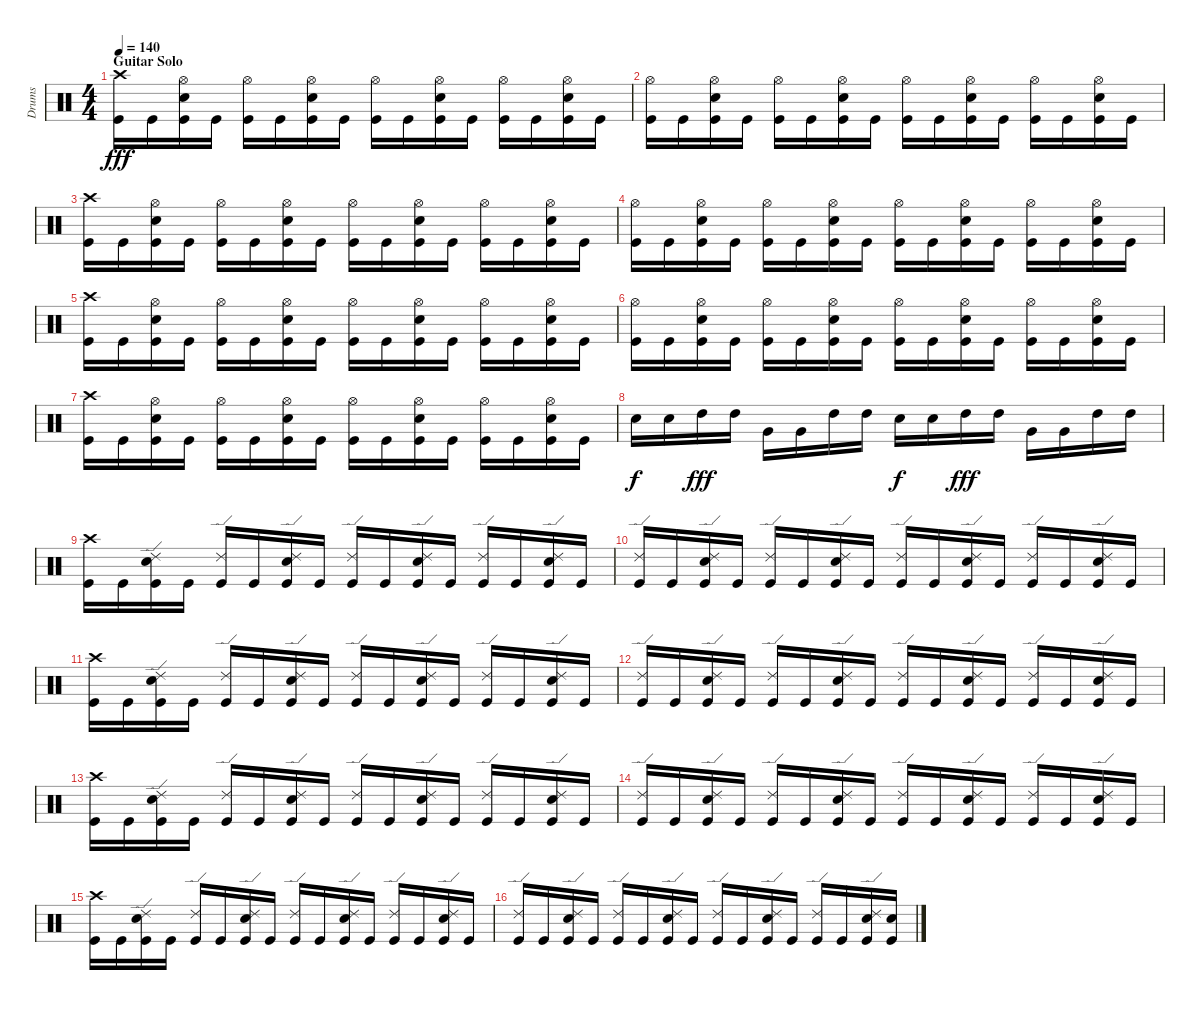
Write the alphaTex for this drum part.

\track ("Drums" "Drums") {instrument percussion}
\staff {score}
\articulation defaults
\ts (4 4)
\section ("" "Guitar Solo")
\tempo 140
\clef neutral
\ks c
("Crash high (hit)" "Kick (hit)").16{dy fff} "Kick (hit)".16 ("Hi-Hat (open)" "Snare (hit) 2" "Kick (hit)").16 "Kick (hit)".16 ("Hi-Hat (open)" "Kick (hit)").16 "Kick (hit)".16 ("Hi-Hat (open)" "Snare (hit) 2" "Kick (hit)").16 "Kick (hit)".16 ("Hi-Hat (open)" "Kick (hit)").16 "Kick (hit)".16 ("Hi-Hat (open)" "Snare (hit) 2" "Kick (hit)").16 "Kick (hit)".16 ("Hi-Hat (open)" "Kick (hit)").16 "Kick (hit)".16 ("Hi-Hat (open)" "Snare (hit) 2" "Kick (hit)").16 "Kick (hit)".16 |
("Hi-Hat (open)" "Kick (hit)").16 "Kick (hit)".16 ("Hi-Hat (open)" "Snare (hit) 2" "Kick (hit)").16 "Kick (hit)".16 ("Hi-Hat (open)" "Kick (hit)").16 "Kick (hit)".16 ("Hi-Hat (open)" "Snare (hit) 2" "Kick (hit)").16 "Kick (hit)".16 ("Hi-Hat (open)" "Kick (hit)").16 "Kick (hit)".16 ("Hi-Hat (open)" "Snare (hit) 2" "Kick (hit)").16 "Kick (hit)".16 ("Hi-Hat (open)" "Kick (hit)").16 "Kick (hit)".16 ("Hi-Hat (open)" "Snare (hit) 2" "Kick (hit)").16 "Kick (hit)".16 |
("Crash high (hit)" "Kick (hit)").16 "Kick (hit)".16 ("Hi-Hat (open)" "Snare (hit) 2" "Kick (hit)").16 "Kick (hit)".16 ("Hi-Hat (open)" "Kick (hit)").16 "Kick (hit)".16 ("Hi-Hat (open)" "Snare (hit) 2" "Kick (hit)").16 "Kick (hit)".16 ("Hi-Hat (open)" "Kick (hit)").16 "Kick (hit)".16 ("Hi-Hat (open)" "Snare (hit) 2" "Kick (hit)").16 "Kick (hit)".16 ("Hi-Hat (open)" "Kick (hit)").16 "Kick (hit)".16 ("Hi-Hat (open)" "Snare (hit) 2" "Kick (hit)").16 "Kick (hit)".16 |
("Hi-Hat (open)" "Kick (hit)").16 "Kick (hit)".16 ("Hi-Hat (open)" "Snare (hit) 2" "Kick (hit)").16 "Kick (hit)".16 ("Hi-Hat (open)" "Kick (hit)").16 "Kick (hit)".16 ("Hi-Hat (open)" "Snare (hit) 2" "Kick (hit)").16 "Kick (hit)".16 ("Hi-Hat (open)" "Kick (hit)").16 "Kick (hit)".16 ("Hi-Hat (open)" "Snare (hit) 2" "Kick (hit)").16 "Kick (hit)".16 ("Hi-Hat (open)" "Kick (hit)").16 "Kick (hit)".16 ("Hi-Hat (open)" "Snare (hit) 2" "Kick (hit)").16 "Kick (hit)".16 |
("Crash high (hit)" "Kick (hit)").16 "Kick (hit)".16 ("Hi-Hat (open)" "Snare (hit) 2" "Kick (hit)").16 "Kick (hit)".16 ("Hi-Hat (open)" "Kick (hit)").16 "Kick (hit)".16 ("Hi-Hat (open)" "Snare (hit) 2" "Kick (hit)").16 "Kick (hit)".16 ("Hi-Hat (open)" "Kick (hit)").16 "Kick (hit)".16 ("Hi-Hat (open)" "Snare (hit) 2" "Kick (hit)").16 "Kick (hit)".16 ("Hi-Hat (open)" "Kick (hit)").16 "Kick (hit)".16 ("Hi-Hat (open)" "Snare (hit) 2" "Kick (hit)").16 "Kick (hit)".16 |
("Hi-Hat (open)" "Kick (hit)").16 "Kick (hit)".16 ("Hi-Hat (open)" "Snare (hit) 2" "Kick (hit)").16 "Kick (hit)".16 ("Hi-Hat (open)" "Kick (hit)").16 "Kick (hit)".16 ("Hi-Hat (open)" "Snare (hit) 2" "Kick (hit)").16 "Kick (hit)".16 ("Hi-Hat (open)" "Kick (hit)").16 "Kick (hit)".16 ("Hi-Hat (open)" "Snare (hit) 2" "Kick (hit)").16 "Kick (hit)".16 ("Hi-Hat (open)" "Kick (hit)").16 "Kick (hit)".16 ("Hi-Hat (open)" "Snare (hit) 2" "Kick (hit)").16 "Kick (hit)".16 |
("Crash high (hit)" "Kick (hit)").16 "Kick (hit)".16 ("Hi-Hat (open)" "Snare (hit) 2" "Kick (hit)").16 "Kick (hit)".16 ("Hi-Hat (open)" "Kick (hit)").16 "Kick (hit)".16 ("Hi-Hat (open)" "Snare (hit) 2" "Kick (hit)").16 "Kick (hit)".16 ("Hi-Hat (open)" "Kick (hit)").16 "Kick (hit)".16 ("Hi-Hat (open)" "Snare (hit) 2" "Kick (hit)").16 "Kick (hit)".16 ("Hi-Hat (open)" "Kick (hit)").16 "Kick (hit)".16 ("Hi-Hat (open)" "Snare (hit) 2" "Kick (hit)").16 "Kick (hit)".16 |
"Snare (hit) 2".16{dy f} "Snare (hit) 2".16 "High Tom (hit)".16{dy fff} "High Tom (hit)".16 "Very Low Tom (hit)".16 "Very Low Tom (hit)".16 "High Tom (hit)".16 "High Tom (hit)".16 "Snare (hit) 2".16{dy f} "Snare (hit) 2".16 "High Tom (hit)".16{dy fff} "High Tom (hit)".16 "Very Low Tom (hit)".16 "Very Low Tom (hit)".16 "High Tom (hit)".16 "High Tom (hit)".16 |
("Crash high (hit)" "Kick (hit)").16 "Kick (hit)".16 ("Ride (edge) 2" "Snare (hit) 2" "Kick (hit)").16 "Kick (hit)".16 ("Ride (edge) 2" "Kick (hit)").16 "Kick (hit)".16 ("Ride (edge) 2" "Snare (hit) 2" "Kick (hit)").16 "Kick (hit)".16 ("Ride (edge) 2" "Kick (hit)").16 "Kick (hit)".16 ("Ride (edge) 2" "Snare (hit) 2" "Kick (hit)").16 "Kick (hit)".16 ("Ride (edge) 2" "Kick (hit)").16 "Kick (hit)".16 ("Ride (edge) 2" "Snare (hit) 2" "Kick (hit)").16 "Kick (hit)".16 |
("Ride (edge) 2" "Kick (hit)").16 "Kick (hit)".16 ("Ride (edge) 2" "Snare (hit) 2" "Kick (hit)").16 "Kick (hit)".16 ("Ride (edge) 2" "Kick (hit)").16 "Kick (hit)".16 ("Ride (edge) 2" "Snare (hit) 2" "Kick (hit)").16 "Kick (hit)".16 ("Ride (edge) 2" "Kick (hit)").16 "Kick (hit)".16 ("Ride (edge) 2" "Snare (hit) 2" "Kick (hit)").16 "Kick (hit)".16 ("Ride (edge) 2" "Kick (hit)").16 "Kick (hit)".16 ("Ride (edge) 2" "Snare (hit) 2" "Kick (hit)").16 "Kick (hit)".16 |
("Crash high (hit)" "Kick (hit)").16 "Kick (hit)".16 ("Ride (edge) 2" "Snare (hit) 2" "Kick (hit)").16 "Kick (hit)".16 ("Ride (edge) 2" "Kick (hit)").16 "Kick (hit)".16 ("Ride (edge) 2" "Snare (hit) 2" "Kick (hit)").16 "Kick (hit)".16 ("Ride (edge) 2" "Kick (hit)").16 "Kick (hit)".16 ("Ride (edge) 2" "Snare (hit) 2" "Kick (hit)").16 "Kick (hit)".16 ("Ride (edge) 2" "Kick (hit)").16 "Kick (hit)".16 ("Ride (edge) 2" "Snare (hit) 2" "Kick (hit)").16 "Kick (hit)".16 |
("Ride (edge) 2" "Kick (hit)").16 "Kick (hit)".16 ("Ride (edge) 2" "Snare (hit) 2" "Kick (hit)").16 "Kick (hit)".16 ("Ride (edge) 2" "Kick (hit)").16 "Kick (hit)".16 ("Ride (edge) 2" "Snare (hit) 2" "Kick (hit)").16 "Kick (hit)".16 ("Ride (edge) 2" "Kick (hit)").16 "Kick (hit)".16 ("Ride (edge) 2" "Snare (hit) 2" "Kick (hit)").16 "Kick (hit)".16 ("Ride (edge) 2" "Kick (hit)").16 "Kick (hit)".16 ("Ride (edge) 2" "Snare (hit) 2" "Kick (hit)").16 "Kick (hit)".16 |
("Crash high (hit)" "Kick (hit)").16 "Kick (hit)".16 ("Ride (edge) 2" "Snare (hit) 2" "Kick (hit)").16 "Kick (hit)".16 ("Ride (edge) 2" "Kick (hit)").16 "Kick (hit)".16 ("Ride (edge) 2" "Snare (hit) 2" "Kick (hit)").16 "Kick (hit)".16 ("Ride (edge) 2" "Kick (hit)").16 "Kick (hit)".16 ("Ride (edge) 2" "Snare (hit) 2" "Kick (hit)").16 "Kick (hit)".16 ("Ride (edge) 2" "Kick (hit)").16 "Kick (hit)".16 ("Ride (edge) 2" "Snare (hit) 2" "Kick (hit)").16 "Kick (hit)".16 |
("Ride (edge) 2" "Kick (hit)").16 "Kick (hit)".16 ("Ride (edge) 2" "Snare (hit) 2" "Kick (hit)").16 "Kick (hit)".16 ("Ride (edge) 2" "Kick (hit)").16 "Kick (hit)".16 ("Ride (edge) 2" "Snare (hit) 2" "Kick (hit)").16 "Kick (hit)".16 ("Ride (edge) 2" "Kick (hit)").16 "Kick (hit)".16 ("Ride (edge) 2" "Snare (hit) 2" "Kick (hit)").16 "Kick (hit)".16 ("Ride (edge) 2" "Kick (hit)").16 "Kick (hit)".16 ("Ride (edge) 2" "Snare (hit) 2" "Kick (hit)").16 "Kick (hit)".16 |
("Crash high (hit)" "Kick (hit)").16 "Kick (hit)".16 ("Ride (edge) 2" "Snare (hit) 2" "Kick (hit)").16 "Kick (hit)".16 ("Ride (edge) 2" "Kick (hit)").16 "Kick (hit)".16 ("Ride (edge) 2" "Snare (hit) 2" "Kick (hit)").16 "Kick (hit)".16 ("Ride (edge) 2" "Kick (hit)").16 "Kick (hit)".16 ("Ride (edge) 2" "Snare (hit) 2" "Kick (hit)").16 "Kick (hit)".16 ("Ride (edge) 2" "Kick (hit)").16 "Kick (hit)".16 ("Ride (edge) 2" "Snare (hit) 2" "Kick (hit)").16 "Kick (hit)".16 |
("Ride (edge) 2" "Kick (hit)").16 "Kick (hit)".16 ("Ride (edge) 2" "Snare (hit) 2" "Kick (hit)").16 "Kick (hit)".16 ("Ride (edge) 2" "Kick (hit)").16 "Kick (hit)".16 ("Ride (edge) 2" "Snare (hit) 2" "Kick (hit)").16 "Kick (hit)".16 ("Ride (edge) 2" "Kick (hit)").16 "Kick (hit)".16 ("Ride (edge) 2" "Snare (hit) 2" "Kick (hit)").16 "Kick (hit)".16 ("Ride (edge) 2" "Kick (hit)").16 "Kick (hit)".16 ("Ride (edge) 2" "Snare (hit) 2" "Kick (hit)").16 ("Snare (hit) 2" "Kick (hit)").16
